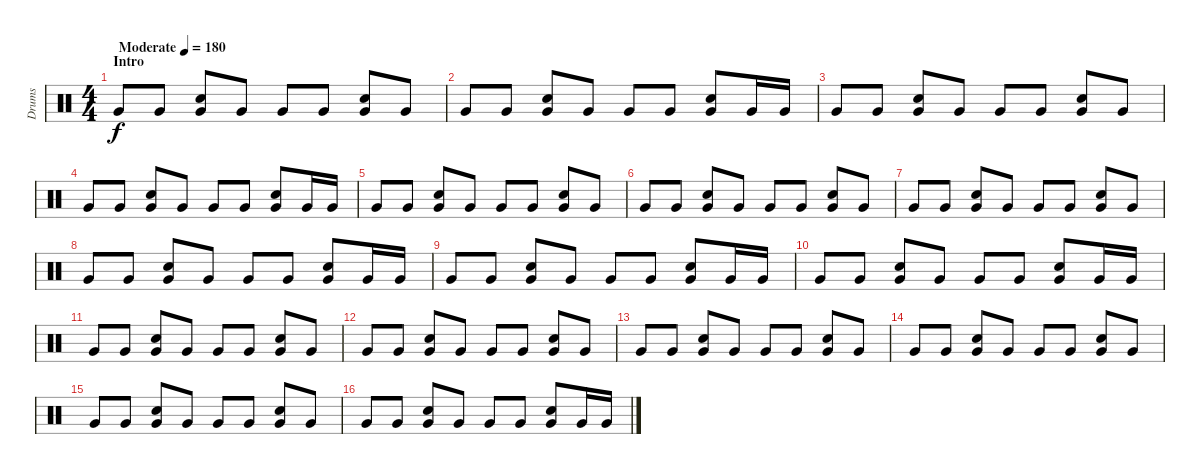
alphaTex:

\track ("Drums" "Drums") {instrument percussion}
\staff {score}
\articulation defaults
\ts (4 4)
\section ("" "Intro")
\tempo (180 "Moderate")
\clef neutral
\ks c "Very Low Tom (hit)".8{dy f} "Very Low Tom (hit)".8
("Very Low Tom (hit)" "Snare (hit) 2").8 "Very Low Tom (hit)".8 "Very Low Tom (hit)".8 "Very Low Tom (hit)".8 ("Very Low Tom (hit)" "Snare (hit) 2").8 "Very Low Tom (hit)".8 |
"Very Low Tom (hit)".8 "Very Low Tom (hit)".8 ("Very Low Tom (hit)" "Snare (hit) 2").8 "Very Low Tom (hit)".8 "Very Low Tom (hit)".8 "Very Low Tom (hit)".8 ("Very Low Tom (hit)" "Snare (hit) 2").8 "Very Low Tom (hit)".16 "Very Low Tom (hit)".16 |
"Very Low Tom (hit)".8 "Very Low Tom (hit)".8 ("Very Low Tom (hit)" "Snare (hit) 2").8 "Very Low Tom (hit)".8 "Very Low Tom (hit)".8 "Very Low Tom (hit)".8 ("Very Low Tom (hit)" "Snare (hit) 2").8 "Very Low Tom (hit)".8 |
"Very Low Tom (hit)".8 "Very Low Tom (hit)".8 ("Very Low Tom (hit)" "Snare (hit) 2").8 "Very Low Tom (hit)".8 "Very Low Tom (hit)".8 "Very Low Tom (hit)".8 ("Very Low Tom (hit)" "Snare (hit) 2").8 "Very Low Tom (hit)".16 "Very Low Tom (hit)".16 |
"Very Low Tom (hit)".8 "Very Low Tom (hit)".8 ("Very Low Tom (hit)" "Snare (hit) 2").8 "Very Low Tom (hit)".8 "Very Low Tom (hit)".8 "Very Low Tom (hit)".8 ("Very Low Tom (hit)" "Snare (hit) 2").8 "Very Low Tom (hit)".8 |
"Very Low Tom (hit)".8 "Very Low Tom (hit)".8 ("Very Low Tom (hit)" "Snare (hit) 2").8 "Very Low Tom (hit)".8 "Very Low Tom (hit)".8 "Very Low Tom (hit)".8 ("Very Low Tom (hit)" "Snare (hit) 2").8 "Very Low Tom (hit)".8 |
"Very Low Tom (hit)".8 "Very Low Tom (hit)".8 ("Very Low Tom (hit)" "Snare (hit) 2").8 "Very Low Tom (hit)".8 "Very Low Tom (hit)".8 "Very Low Tom (hit)".8 ("Very Low Tom (hit)" "Snare (hit) 2").8 "Very Low Tom (hit)".8 |
"Very Low Tom (hit)".8 "Very Low Tom (hit)".8 ("Very Low Tom (hit)" "Snare (hit) 2").8 "Very Low Tom (hit)".8 "Very Low Tom (hit)".8 "Very Low Tom (hit)".8 ("Very Low Tom (hit)" "Snare (hit) 2").8 "Very Low Tom (hit)".16 "Very Low Tom (hit)".16 |
"Very Low Tom (hit)".8 "Very Low Tom (hit)".8 ("Very Low Tom (hit)" "Snare (hit) 2").8 "Very Low Tom (hit)".8 "Very Low Tom (hit)".8 "Very Low Tom (hit)".8 ("Very Low Tom (hit)" "Snare (hit) 2").8 "Very Low Tom (hit)".16 "Very Low Tom (hit)".16 |
"Very Low Tom (hit)".8 "Very Low Tom (hit)".8 ("Very Low Tom (hit)" "Snare (hit) 2").8 "Very Low Tom (hit)".8 "Very Low Tom (hit)".8 "Very Low Tom (hit)".8 ("Very Low Tom (hit)" "Snare (hit) 2").8 "Very Low Tom (hit)".16 "Very Low Tom (hit)".16 |
"Very Low Tom (hit)".8 "Very Low Tom (hit)".8 ("Very Low Tom (hit)" "Snare (hit) 2").8 "Very Low Tom (hit)".8 "Very Low Tom (hit)".8 "Very Low Tom (hit)".8 ("Very Low Tom (hit)" "Snare (hit) 2").8 "Very Low Tom (hit)".8 |
"Very Low Tom (hit)".8 "Very Low Tom (hit)".8 ("Very Low Tom (hit)" "Snare (hit) 2").8 "Very Low Tom (hit)".8 "Very Low Tom (hit)".8 "Very Low Tom (hit)".8 ("Very Low Tom (hit)" "Snare (hit) 2").8 "Very Low Tom (hit)".8 |
"Very Low Tom (hit)".8 "Very Low Tom (hit)".8 ("Very Low Tom (hit)" "Snare (hit) 2").8 "Very Low Tom (hit)".8 "Very Low Tom (hit)".8 "Very Low Tom (hit)".8 ("Very Low Tom (hit)" "Snare (hit) 2").8 "Very Low Tom (hit)".8 |
"Very Low Tom (hit)".8 "Very Low Tom (hit)".8 ("Very Low Tom (hit)" "Snare (hit) 2").8 "Very Low Tom (hit)".8 "Very Low Tom (hit)".8 "Very Low Tom (hit)".8 ("Very Low Tom (hit)" "Snare (hit) 2").8 "Very Low Tom (hit)".8 |
"Very Low Tom (hit)".8 "Very Low Tom (hit)".8 ("Very Low Tom (hit)" "Snare (hit) 2").8 "Very Low Tom (hit)".8 "Very Low Tom (hit)".8 "Very Low Tom (hit)".8 ("Very Low Tom (hit)" "Snare (hit) 2").8 "Very Low Tom (hit)".8 |
"Very Low Tom (hit)".8 "Very Low Tom (hit)".8 ("Very Low Tom (hit)" "Snare (hit) 2").8 "Very Low Tom (hit)".8 "Very Low Tom (hit)".8 "Very Low Tom (hit)".8 ("Very Low Tom (hit)" "Snare (hit) 2").8 "Very Low Tom (hit)".16 "Very Low Tom (hit)".16
